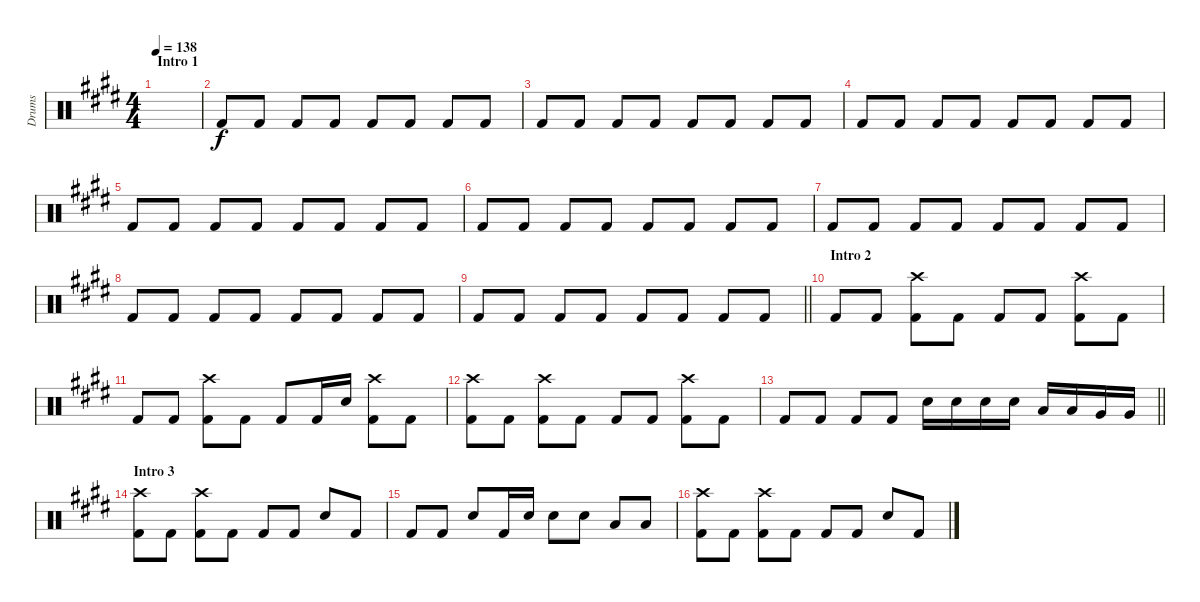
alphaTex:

\track ("Drums" "Drums") {instrument percussion}
\staff {score}
\articulation defaults
\ts (4 4)
\section ("" "Intro 1")
\tempo 138
\clef neutral
\ks e
|
\ks c#minor "Kick (hit) 2".8 "Kick (hit) 2".8 "Kick (hit) 2".8 "Kick (hit) 2".8 "Kick (hit) 2".8 "Kick (hit) 2".8 "Kick (hit) 2".8 "Kick (hit) 2".8
|
"Kick (hit) 2".8 "Kick (hit) 2".8 "Kick (hit) 2".8 "Kick (hit) 2".8 "Kick (hit) 2".8 "Kick (hit) 2".8 "Kick (hit) 2".8 "Kick (hit) 2".8 |
"Kick (hit) 2".8 "Kick (hit) 2".8 "Kick (hit) 2".8 "Kick (hit) 2".8 "Kick (hit) 2".8 "Kick (hit) 2".8 "Kick (hit) 2".8 "Kick (hit) 2".8 |
"Kick (hit) 2".8 "Kick (hit) 2".8 "Kick (hit) 2".8 "Kick (hit) 2".8 "Kick (hit) 2".8 "Kick (hit) 2".8 "Kick (hit) 2".8 "Kick (hit) 2".8 |
"Kick (hit) 2".8 "Kick (hit) 2".8 "Kick (hit) 2".8 "Kick (hit) 2".8 "Kick (hit) 2".8 "Kick (hit) 2".8 "Kick (hit) 2".8 "Kick (hit) 2".8 |
"Kick (hit) 2".8 "Kick (hit) 2".8 "Kick (hit) 2".8 "Kick (hit) 2".8 "Kick (hit) 2".8 "Kick (hit) 2".8 "Kick (hit) 2".8 "Kick (hit) 2".8 |
"Kick (hit) 2".8 "Kick (hit) 2".8 "Kick (hit) 2".8 "Kick (hit) 2".8 "Kick (hit) 2".8 "Kick (hit) 2".8 "Kick (hit) 2".8 "Kick (hit) 2".8 |
\barLineRight lightlight "Kick (hit) 2".8 "Kick (hit) 2".8 "Kick (hit) 2".8 "Kick (hit) 2".8 "Kick (hit) 2".8 "Kick (hit) 2".8 "Kick (hit) 2".8 "Kick (hit) 2".8
|
\section ("" "Intro 2")
"Kick (hit) 2".8 "Kick (hit) 2".8 ("Crash high (hit)" "Kick (hit) 2").8 "Kick (hit) 2".8 "Kick (hit) 2".8 "Kick (hit) 2".8 ("Crash high (hit)" "Kick (hit) 2").8 "Kick (hit) 2".8 |
"Kick (hit) 2".8 "Kick (hit) 2".8 ("Crash high (hit)" "Kick (hit) 2").8 "Kick (hit) 2".8 "Kick (hit) 2".8 "Kick (hit) 2".16 "Snare (hit) 2".16 ("Crash high (hit)" "Kick (hit) 2").8 "Kick (hit) 2".8 |
("Crash high (hit)" "Kick (hit) 2").8 "Kick (hit) 2".8 ("Crash high (hit)" "Kick (hit) 2").8 "Kick (hit) 2".8 "Kick (hit) 2".8 "Kick (hit) 2".8 ("Crash high (hit)" "Kick (hit) 2").8 "Kick (hit) 2".8 |
\barLineRight lightlight "Kick (hit) 2".8 "Kick (hit) 2".8 "Kick (hit) 2".8 "Kick (hit) 2".8 "Snare (hit) 2".16 "Snare (hit) 2".16 "Snare (hit) 2".16 "Snare (hit) 2".16 "Low Tom (hit)".16 "Low Tom (hit)".16 "Very Low Tom (hit)".16 "Very Low Tom (hit)".16
|
\section ("" "Intro 3")
("Crash high (hit)" "Kick (hit) 2").8 "Kick (hit) 2".8 ("Crash high (hit)" "Kick (hit) 2").8 "Kick (hit) 2".8 "Kick (hit) 2".8 "Kick (hit) 2".8 "Snare (hit) 2".8 "Kick (hit) 2".8 |
"Kick (hit) 2".8 "Kick (hit) 2".8 "Snare (hit) 2".8 "Kick (hit) 2".16 "Snare (hit) 2".16 "Snare (hit) 2".8 "Snare (hit) 2".8 "Low Tom (hit)".8 "Low Tom (hit)".8 |
("Crash high (hit)" "Kick (hit) 2").8 "Kick (hit) 2".8 ("Crash high (hit)" "Kick (hit) 2").8 "Kick (hit) 2".8 "Kick (hit) 2".8 "Kick (hit) 2".8 "Snare (hit) 2".8 "Kick (hit) 2".8
